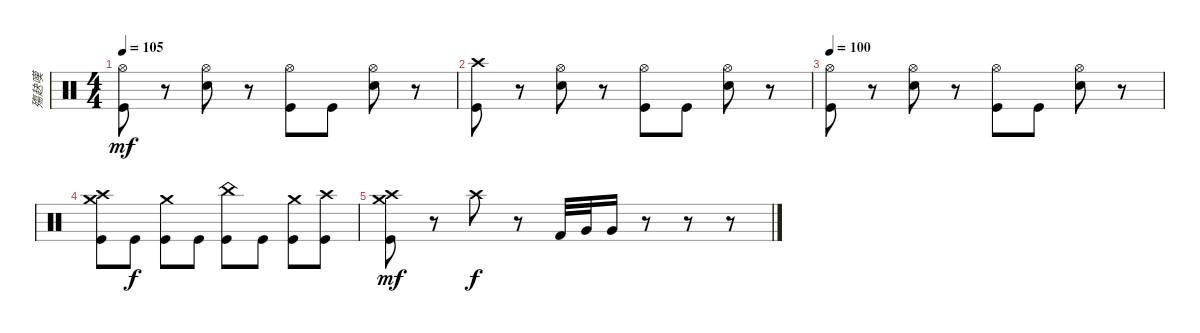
\track ("殤赽嘆" "殤赽嘆") {instrument percussion}
\staff {score}
\articulation defaults
\ts (4 4)
\tempo 105
\clef neutral
\ks c
("Hi-Hat (open)" "Kick (hit)").8{dy mf} r.8 ("Hi-Hat (open)" "Snare (hit) 2").8 r.8 ("Hi-Hat (open)" "Kick (hit)").8 "Kick (hit)".8 ("Hi-Hat (open)" "Snare (hit) 2").8 r.8 |
("Crash high (hit)" "Kick (hit)").8 r.8 ("Hi-Hat (open)" "Snare (hit) 2").8 r.8 ("Hi-Hat (open)" "Kick (hit)").8 "Kick (hit)".8 ("Hi-Hat (open)" "Snare (hit) 2").8 r.8 |
\tempo 100
("Hi-Hat (open)" "Kick (hit)").8 r.8 ("Hi-Hat (open)" "Snare (hit) 2").8 r.8 ("Hi-Hat (open)" "Kick (hit)").8 "Kick (hit)".8 ("Hi-Hat (open)" "Snare (hit) 2").8 r.8 |
("Crash high (hit)" "Crash medium (hit)" "Kick (hit)").8 "Kick (hit)".8{dy f} ("Crash medium (hit)" "Kick (hit)").8 "Kick (hit)".8 ("China (hit)" "Kick (hit)").8 "Kick (hit)".8 ("Crash medium (hit)" "Kick (hit)").8 ("Crash high (hit)" "Kick (hit)").8 |
("Crash high (hit)" "Crash medium (hit)" "Kick (hit)").8{dy mf} r.8 "Crash high (hit)".8{dy f} r.8 "Kick (hit) 2".32 "Very Low Tom (hit)".32 "Very Low Tom (hit)".16 r.8 r.8 r.8
